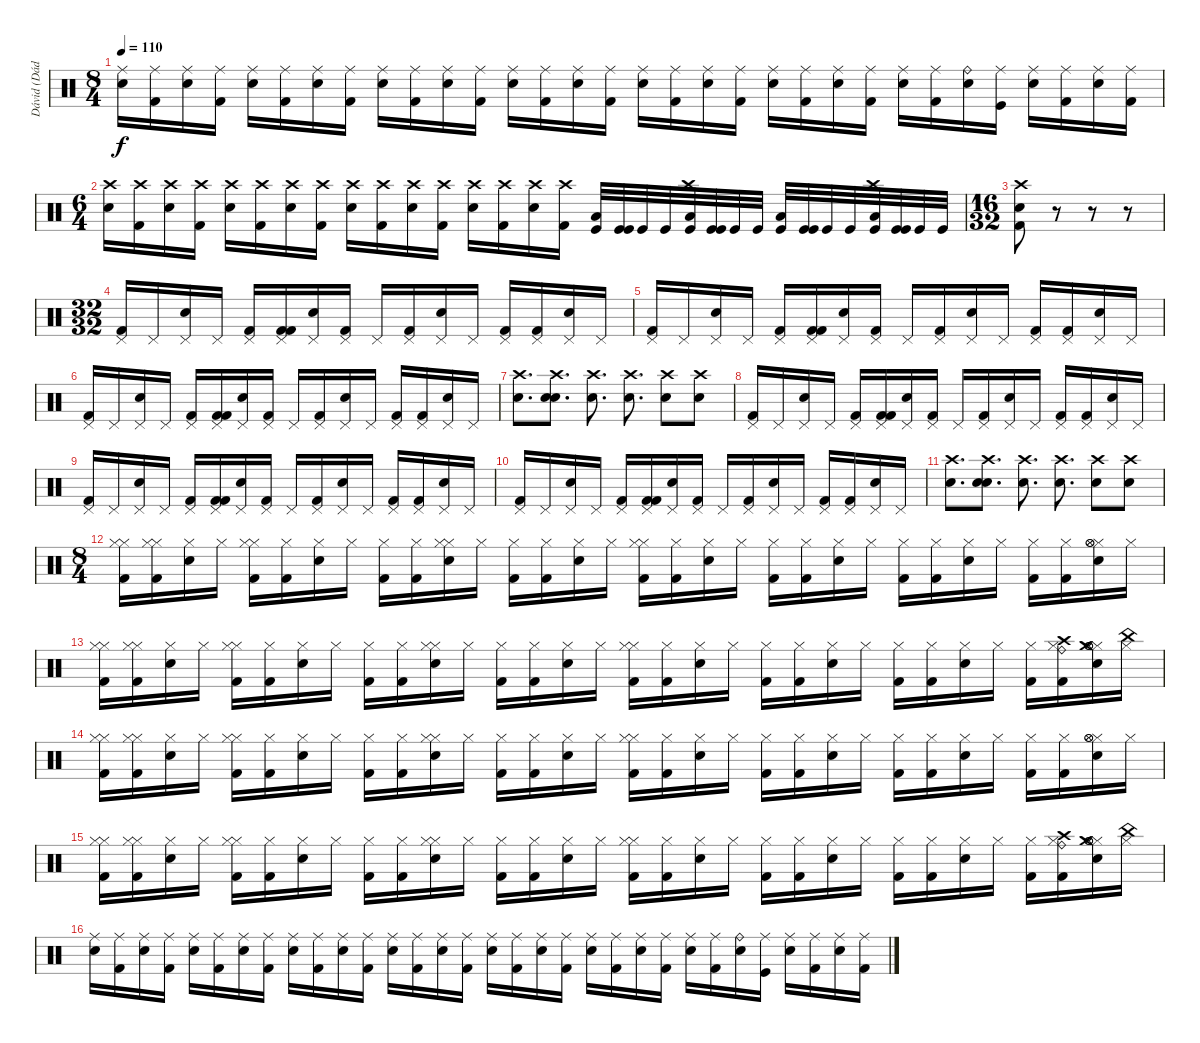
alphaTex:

\track ("Dávid (Dádi)" "Dávid (Dád") {instrument percussion}
\staff {score}
\articulation defaults
\ts (8 4)
\tempo 110
\clef neutral
\ks c
("Ride (middle)" "Electric Snare (hit)").16{dy f} ("Ride (middle)" "Kick (hit) 2").16 ("Ride (middle)" "Electric Snare (hit)").16 ("Ride (middle)" "Kick (hit) 2").16 ("Ride (middle)" "Electric Snare (hit)").16 ("Ride (middle)" "Kick (hit) 2").16 ("Ride (middle)" "Electric Snare (hit)").16 ("Ride (middle)" "Kick (hit) 2").16 ("Ride (middle)" "Electric Snare (hit)").16 ("Ride (middle)" "Kick (hit) 2").16 ("Ride (middle)" "Electric Snare (hit)").16 ("Ride (middle)" "Kick (hit) 2").16 ("Ride (middle)" "Electric Snare (hit)").16 ("Ride (middle)" "Kick (hit) 2").16 ("Ride (middle)" "Electric Snare (hit)").16 ("Ride (middle)" "Kick (hit) 2").16 ("Ride (middle)" "Electric Snare (hit)").16 ("Ride (middle)" "Kick (hit) 2").16 ("Ride (middle)" "Electric Snare (hit)").16 ("Ride (middle)" "Kick (hit) 2").16 ("Ride (middle)" "Electric Snare (hit)").16 ("Ride (middle)" "Kick (hit) 2").16 ("Ride (middle)" "Electric Snare (hit)").16 ("Ride (middle)" "Kick (hit) 2").16 ("Ride (middle)" "Electric Snare (hit)").16 ("Ride (middle)" "Kick (hit) 2").16 ("Electric Snare (hit)" "Ride (bell)").16 ("Ride (middle)" "Kick (hit)").16 ("Ride (middle)" "Electric Snare (hit)").16 ("Ride (middle)" "Kick (hit) 2").16 ("Ride (middle)" "Electric Snare (hit)").16 ("Ride (middle)" "Kick (hit) 2").16 |
\ts (6 4)
("Electric Snare (hit)" "Crash high (hit)").16 ("Kick (hit) 2" "Crash high (hit)").16 ("Electric Snare (hit)" "Crash high (hit)").16 ("Kick (hit) 2" "Crash high (hit)").16 ("Electric Snare (hit)" "Crash high (hit)").16 ("Kick (hit) 2" "Crash high (hit)").16 ("Electric Snare (hit)" "Crash high (hit)").16 ("Kick (hit) 2" "Crash high (hit)").16 ("Electric Snare (hit)" "Crash high (hit)").16 ("Kick (hit) 2" "Crash high (hit)").16 ("Electric Snare (hit)" "Crash high (hit)").16 ("Kick (hit) 2" "Crash high (hit)").16 ("Electric Snare (hit)" "Crash high (hit)").16 ("Kick (hit) 2" "Crash high (hit)").16 ("Electric Snare (hit)" "Crash high (hit)").16 ("Kick (hit) 2" "Crash high (hit)").16 ("Kick (hit)" "Low Floor Tom (hit)").32 ("Kick (hit)" "Kick (hit)").32 "Kick (hit)".32 "Kick (hit)".32 ("Crash high (hit)" "Kick (hit)" "Low Floor Tom (hit)").32 ("Kick (hit)" "Kick (hit)").32 "Kick (hit)".32 "Kick (hit)".32 ("Kick (hit)" "Low Floor Tom (hit)").32 ("Kick (hit)" "Kick (hit)").32 "Kick (hit)".32 "Kick (hit)".32 ("Crash high (hit)" "Kick (hit)" "Low Floor Tom (hit)").32 ("Kick (hit)" "Kick (hit)").32 "Kick (hit)".32 "Kick (hit)".32 |
\ts (16 32)
("Electric Snare (hit)" "Crash high (hit)" "Kick (hit) 2").8 r.8 r.8 r.8 |
\ts (32 32)
("Pedal Hi-Hat (hit)" "Kick (hit) 2").16 "Pedal Hi-Hat (hit)".16 ("Pedal Hi-Hat (hit)" "Electric Snare (hit)").16 "Pedal Hi-Hat (hit)".16 ("Pedal Hi-Hat (hit)" "Kick (hit) 2").16 ("Pedal Hi-Hat (hit)" "Kick (hit) 2" "Kick (hit) 2").16 ("Pedal Hi-Hat (hit)" "Electric Snare (hit)").16 ("Pedal Hi-Hat (hit)" "Kick (hit) 2").16 "Pedal Hi-Hat (hit)".16 ("Pedal Hi-Hat (hit)" "Kick (hit) 2").16 ("Pedal Hi-Hat (hit)" "Electric Snare (hit)").16 "Pedal Hi-Hat (hit)".16 ("Pedal Hi-Hat (hit)" "Kick (hit) 2").16 ("Pedal Hi-Hat (hit)" "Kick (hit) 2").16 ("Pedal Hi-Hat (hit)" "Electric Snare (hit)").16 "Pedal Hi-Hat (hit)".16 |
("Pedal Hi-Hat (hit)" "Kick (hit) 2").16 "Pedal Hi-Hat (hit)".16 ("Pedal Hi-Hat (hit)" "Electric Snare (hit)").16 "Pedal Hi-Hat (hit)".16 ("Pedal Hi-Hat (hit)" "Kick (hit) 2").16 ("Pedal Hi-Hat (hit)" "Kick (hit) 2" "Kick (hit) 2").16 ("Pedal Hi-Hat (hit)" "Electric Snare (hit)").16 ("Pedal Hi-Hat (hit)" "Kick (hit) 2").16 "Pedal Hi-Hat (hit)".16 ("Pedal Hi-Hat (hit)" "Kick (hit) 2").16 ("Pedal Hi-Hat (hit)" "Electric Snare (hit)").16 "Pedal Hi-Hat (hit)".16 ("Pedal Hi-Hat (hit)" "Kick (hit) 2").16 ("Pedal Hi-Hat (hit)" "Kick (hit) 2").16 ("Pedal Hi-Hat (hit)" "Electric Snare (hit)").16 "Pedal Hi-Hat (hit)".16 |
("Pedal Hi-Hat (hit)" "Kick (hit) 2").16 "Pedal Hi-Hat (hit)".16 ("Pedal Hi-Hat (hit)" "Electric Snare (hit)").16 "Pedal Hi-Hat (hit)".16 ("Pedal Hi-Hat (hit)" "Kick (hit) 2").16 ("Pedal Hi-Hat (hit)" "Kick (hit) 2" "Kick (hit) 2").16 ("Pedal Hi-Hat (hit)" "Electric Snare (hit)").16 ("Pedal Hi-Hat (hit)" "Kick (hit) 2").16 "Pedal Hi-Hat (hit)".16 ("Pedal Hi-Hat (hit)" "Kick (hit) 2").16 ("Pedal Hi-Hat (hit)" "Electric Snare (hit)").16 "Pedal Hi-Hat (hit)".16 ("Pedal Hi-Hat (hit)" "Kick (hit) 2").16 ("Pedal Hi-Hat (hit)" "Kick (hit) 2").16 ("Pedal Hi-Hat (hit)" "Electric Snare (hit)").16 "Pedal Hi-Hat (hit)".16 |
("Crash high (hit)" "Electric Snare (hit)").8{d} ("Crash high (hit)" "Electric Snare (hit)" "Electric Snare (hit)").8{d} ("Crash high (hit)" "Electric Snare (hit)").8{d} ("Crash high (hit)" "Electric Snare (hit)").8{d} ("Snare (hit) 2" "Crash high (hit)").8 ("Snare (hit) 2" "Crash high (hit)").8 |
("Pedal Hi-Hat (hit)" "Kick (hit) 2").16 "Pedal Hi-Hat (hit)".16 ("Pedal Hi-Hat (hit)" "Electric Snare (hit)").16 "Pedal Hi-Hat (hit)".16 ("Pedal Hi-Hat (hit)" "Kick (hit) 2").16 ("Pedal Hi-Hat (hit)" "Kick (hit) 2" "Kick (hit) 2").16 ("Pedal Hi-Hat (hit)" "Electric Snare (hit)").16 ("Pedal Hi-Hat (hit)" "Kick (hit) 2").16 "Pedal Hi-Hat (hit)".16 ("Pedal Hi-Hat (hit)" "Kick (hit) 2").16 ("Pedal Hi-Hat (hit)" "Electric Snare (hit)").16 "Pedal Hi-Hat (hit)".16 ("Pedal Hi-Hat (hit)" "Kick (hit) 2").16 ("Pedal Hi-Hat (hit)" "Kick (hit) 2").16 ("Pedal Hi-Hat (hit)" "Electric Snare (hit)").16 "Pedal Hi-Hat (hit)".16 |
("Pedal Hi-Hat (hit)" "Kick (hit) 2").16 "Pedal Hi-Hat (hit)".16 ("Pedal Hi-Hat (hit)" "Electric Snare (hit)").16 "Pedal Hi-Hat (hit)".16 ("Pedal Hi-Hat (hit)" "Kick (hit) 2").16 ("Pedal Hi-Hat (hit)" "Kick (hit) 2" "Kick (hit) 2").16 ("Pedal Hi-Hat (hit)" "Electric Snare (hit)").16 ("Pedal Hi-Hat (hit)" "Kick (hit) 2").16 "Pedal Hi-Hat (hit)".16 ("Pedal Hi-Hat (hit)" "Kick (hit) 2").16 ("Pedal Hi-Hat (hit)" "Electric Snare (hit)").16 "Pedal Hi-Hat (hit)".16 ("Pedal Hi-Hat (hit)" "Kick (hit) 2").16 ("Pedal Hi-Hat (hit)" "Kick (hit) 2").16 ("Pedal Hi-Hat (hit)" "Electric Snare (hit)").16 "Pedal Hi-Hat (hit)".16 |
("Pedal Hi-Hat (hit)" "Kick (hit) 2").16 "Pedal Hi-Hat (hit)".16 ("Pedal Hi-Hat (hit)" "Electric Snare (hit)").16 "Pedal Hi-Hat (hit)".16 ("Pedal Hi-Hat (hit)" "Kick (hit) 2").16 ("Pedal Hi-Hat (hit)" "Kick (hit) 2" "Kick (hit) 2").16 ("Pedal Hi-Hat (hit)" "Electric Snare (hit)").16 ("Pedal Hi-Hat (hit)" "Kick (hit) 2").16 "Pedal Hi-Hat (hit)".16 ("Pedal Hi-Hat (hit)" "Kick (hit) 2").16 ("Pedal Hi-Hat (hit)" "Electric Snare (hit)").16 "Pedal Hi-Hat (hit)".16 ("Pedal Hi-Hat (hit)" "Kick (hit) 2").16 ("Pedal Hi-Hat (hit)" "Kick (hit) 2").16 ("Pedal Hi-Hat (hit)" "Electric Snare (hit)").16 "Pedal Hi-Hat (hit)".16 |
("Crash high (hit)" "Electric Snare (hit)").8{d} ("Crash high (hit)" "Electric Snare (hit)" "Electric Snare (hit)").8{d} ("Crash high (hit)" "Electric Snare (hit)").8{d} ("Crash high (hit)" "Electric Snare (hit)").8{d} ("Snare (hit) 2" "Crash high (hit)").8 ("Snare (hit) 2" "Crash high (hit)").8 |
\ts (8 4)
("Hi-Hat (closed)" "Hi-Hat (closed)" "Kick (hit) 2").16 ("Hi-Hat (closed)" "Hi-Hat (closed)" "Kick (hit) 2").16 ("Hi-Hat (closed)" "Electric Snare (hit)").16 "Hi-Hat (closed)".16 ("Hi-Hat (closed)" "Hi-Hat (closed)" "Kick (hit) 2").16 ("Hi-Hat (closed)" "Kick (hit) 2").16 ("Hi-Hat (closed)" "Electric Snare (hit)").16 "Hi-Hat (closed)".16 ("Hi-Hat (closed)" "Kick (hit) 2").16 ("Hi-Hat (closed)" "Kick (hit) 2").16 ("Hi-Hat (closed)" "Hi-Hat (closed)" "Electric Snare (hit)").16 "Hi-Hat (closed)".16 ("Hi-Hat (closed)" "Kick (hit) 2").16 ("Hi-Hat (closed)" "Kick (hit) 2").16 ("Hi-Hat (closed)" "Electric Snare (hit)").16 "Hi-Hat (closed)".16 ("Hi-Hat (closed)" "Hi-Hat (closed)" "Kick (hit) 2").16 ("Hi-Hat (closed)" "Kick (hit) 2").16 ("Hi-Hat (closed)" "Electric Snare (hit)").16 "Hi-Hat (closed)".16 ("Hi-Hat (closed)" "Kick (hit) 2").16 ("Hi-Hat (closed)" "Kick (hit) 2").16 ("Hi-Hat (closed)" "Electric Snare (hit)").16 "Hi-Hat (closed)".16 ("Hi-Hat (closed)" "Kick (hit) 2").16 ("Hi-Hat (closed)" "Kick (hit) 2").16 ("Hi-Hat (closed)" "Electric Snare (hit)").16 "Hi-Hat (closed)".16 ("Hi-Hat (closed)" "Kick (hit) 2").16 ("Hi-Hat (closed)" "Kick (hit) 2").16 ("Hi-Hat (closed)" "Electric Snare (hit)" "Hi-Hat (open)" "Hi-Hat (open)").16 "Hi-Hat (closed)".16 |
("Hi-Hat (closed)" "Hi-Hat (closed)" "Kick (hit) 2").16 ("Hi-Hat (closed)" "Hi-Hat (closed)" "Kick (hit) 2").16 ("Hi-Hat (closed)" "Electric Snare (hit)").16 "Hi-Hat (closed)".16 ("Hi-Hat (closed)" "Hi-Hat (closed)" "Kick (hit) 2").16 ("Hi-Hat (closed)" "Kick (hit) 2").16 ("Hi-Hat (closed)" "Electric Snare (hit)").16 "Hi-Hat (closed)".16 ("Hi-Hat (closed)" "Kick (hit) 2").16 ("Hi-Hat (closed)" "Kick (hit) 2").16 ("Hi-Hat (closed)" "Hi-Hat (closed)" "Electric Snare (hit)").16 "Hi-Hat (closed)".16 ("Hi-Hat (closed)" "Kick (hit) 2").16 ("Hi-Hat (closed)" "Kick (hit) 2").16 ("Hi-Hat (closed)" "Electric Snare (hit)").16 "Hi-Hat (closed)".16 ("Hi-Hat (closed)" "Hi-Hat (closed)" "Kick (hit) 2").16 ("Hi-Hat (closed)" "Kick (hit) 2").16 ("Hi-Hat (closed)" "Electric Snare (hit)").16 "Hi-Hat (closed)".16 ("Hi-Hat (closed)" "Kick (hit) 2").16 ("Hi-Hat (closed)" "Kick (hit) 2").16 ("Hi-Hat (closed)" "Electric Snare (hit)").16 "Hi-Hat (closed)".16 ("Hi-Hat (closed)" "Kick (hit) 2").16 ("Hi-Hat (closed)" "Kick (hit) 2").16 ("Hi-Hat (closed)" "Electric Snare (hit)").16 "Hi-Hat (closed)".16 ("Hi-Hat (closed)" "Kick (hit) 2").16 ("Hi-Hat (closed)" "Kick (hit) 2" "Ride (bell)" "Crash high (hit)").16 ("Hi-Hat (closed)" "Electric Snare (hit)" "Hi-Hat (open)" "Hi-Hat (open)" "Crash medium (hit)").16 ("Hi-Hat (closed)" "China (hit)").16 |
("Hi-Hat (closed)" "Hi-Hat (closed)" "Kick (hit) 2").16 ("Hi-Hat (closed)" "Hi-Hat (closed)" "Kick (hit) 2").16 ("Hi-Hat (closed)" "Electric Snare (hit)").16 "Hi-Hat (closed)".16 ("Hi-Hat (closed)" "Hi-Hat (closed)" "Kick (hit) 2").16 ("Hi-Hat (closed)" "Kick (hit) 2").16 ("Hi-Hat (closed)" "Electric Snare (hit)").16 "Hi-Hat (closed)".16 ("Hi-Hat (closed)" "Kick (hit) 2").16 ("Hi-Hat (closed)" "Kick (hit) 2").16 ("Hi-Hat (closed)" "Hi-Hat (closed)" "Electric Snare (hit)").16 "Hi-Hat (closed)".16 ("Hi-Hat (closed)" "Kick (hit) 2").16 ("Hi-Hat (closed)" "Kick (hit) 2").16 ("Hi-Hat (closed)" "Electric Snare (hit)").16 "Hi-Hat (closed)".16 ("Hi-Hat (closed)" "Hi-Hat (closed)" "Kick (hit) 2").16 ("Hi-Hat (closed)" "Kick (hit) 2").16 ("Hi-Hat (closed)" "Electric Snare (hit)").16 "Hi-Hat (closed)".16 ("Hi-Hat (closed)" "Kick (hit) 2").16 ("Hi-Hat (closed)" "Kick (hit) 2").16 ("Hi-Hat (closed)" "Electric Snare (hit)").16 "Hi-Hat (closed)".16 ("Hi-Hat (closed)" "Kick (hit) 2").16 ("Hi-Hat (closed)" "Kick (hit) 2").16 ("Hi-Hat (closed)" "Electric Snare (hit)").16 "Hi-Hat (closed)".16 ("Hi-Hat (closed)" "Kick (hit) 2").16 ("Hi-Hat (closed)" "Kick (hit) 2").16 ("Hi-Hat (closed)" "Electric Snare (hit)" "Hi-Hat (open)" "Hi-Hat (open)").16 "Hi-Hat (closed)".16 |
("Hi-Hat (closed)" "Hi-Hat (closed)" "Kick (hit) 2").16 ("Hi-Hat (closed)" "Hi-Hat (closed)" "Kick (hit) 2").16 ("Hi-Hat (closed)" "Electric Snare (hit)").16 "Hi-Hat (closed)".16 ("Hi-Hat (closed)" "Hi-Hat (closed)" "Kick (hit) 2").16 ("Hi-Hat (closed)" "Kick (hit) 2").16 ("Hi-Hat (closed)" "Electric Snare (hit)").16 "Hi-Hat (closed)".16 ("Hi-Hat (closed)" "Kick (hit) 2").16 ("Hi-Hat (closed)" "Kick (hit) 2").16 ("Hi-Hat (closed)" "Hi-Hat (closed)" "Electric Snare (hit)").16 "Hi-Hat (closed)".16 ("Hi-Hat (closed)" "Kick (hit) 2").16 ("Hi-Hat (closed)" "Kick (hit) 2").16 ("Hi-Hat (closed)" "Electric Snare (hit)").16 "Hi-Hat (closed)".16 ("Hi-Hat (closed)" "Hi-Hat (closed)" "Kick (hit) 2").16 ("Hi-Hat (closed)" "Kick (hit) 2").16 ("Hi-Hat (closed)" "Electric Snare (hit)").16 "Hi-Hat (closed)".16 ("Hi-Hat (closed)" "Kick (hit) 2").16 ("Hi-Hat (closed)" "Kick (hit) 2").16 ("Hi-Hat (closed)" "Electric Snare (hit)").16 "Hi-Hat (closed)".16 ("Hi-Hat (closed)" "Kick (hit) 2").16 ("Hi-Hat (closed)" "Kick (hit) 2").16 ("Hi-Hat (closed)" "Electric Snare (hit)").16 "Hi-Hat (closed)".16 ("Hi-Hat (closed)" "Kick (hit) 2").16 ("Hi-Hat (closed)" "Kick (hit) 2" "Ride (bell)" "Crash high (hit)").16 ("Hi-Hat (closed)" "Electric Snare (hit)" "Hi-Hat (open)" "Hi-Hat (open)" "Crash medium (hit)").16 ("Hi-Hat (closed)" "China (hit)").16 |
("Ride (middle)" "Electric Snare (hit)").16 ("Ride (middle)" "Kick (hit) 2").16 ("Ride (middle)" "Electric Snare (hit)").16 ("Ride (middle)" "Kick (hit) 2").16 ("Ride (middle)" "Electric Snare (hit)").16 ("Ride (middle)" "Kick (hit) 2").16 ("Ride (middle)" "Electric Snare (hit)").16 ("Ride (middle)" "Kick (hit) 2").16 ("Ride (middle)" "Electric Snare (hit)").16 ("Ride (middle)" "Kick (hit) 2").16 ("Ride (middle)" "Electric Snare (hit)").16 ("Ride (middle)" "Kick (hit) 2").16 ("Ride (middle)" "Electric Snare (hit)").16 ("Ride (middle)" "Kick (hit) 2").16 ("Ride (middle)" "Electric Snare (hit)").16 ("Ride (middle)" "Kick (hit) 2").16 ("Ride (middle)" "Electric Snare (hit)").16 ("Ride (middle)" "Kick (hit) 2").16 ("Ride (middle)" "Electric Snare (hit)").16 ("Ride (middle)" "Kick (hit) 2").16 ("Ride (middle)" "Electric Snare (hit)").16 ("Ride (middle)" "Kick (hit) 2").16 ("Ride (middle)" "Electric Snare (hit)").16 ("Ride (middle)" "Kick (hit) 2").16 ("Ride (middle)" "Electric Snare (hit)").16 ("Ride (middle)" "Kick (hit) 2").16 ("Electric Snare (hit)" "Ride (bell)").16 ("Ride (middle)" "Kick (hit)").16 ("Ride (middle)" "Electric Snare (hit)").16 ("Ride (middle)" "Kick (hit) 2").16 ("Ride (middle)" "Electric Snare (hit)").16 ("Ride (middle)" "Kick (hit) 2").16
